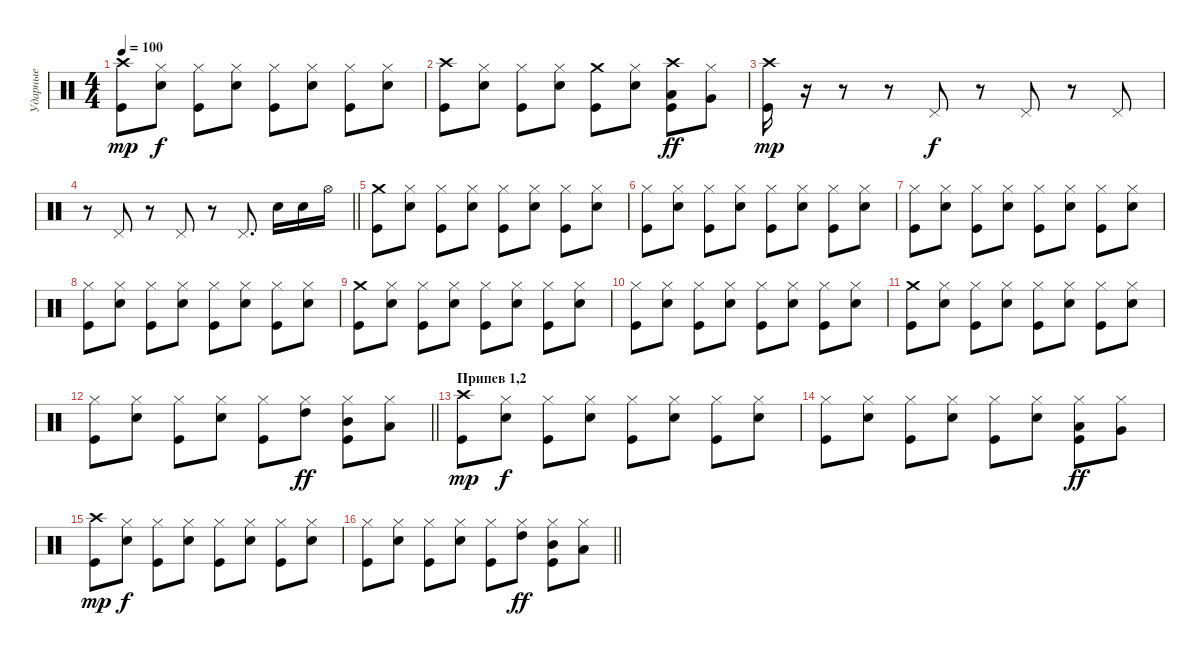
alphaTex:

\track ("Ударные" "Ударные") {instrument percussion}
\staff {score}
\articulation defaults
\ts (4 4)
\tempo 100
\clef neutral
\ks c
("Kick (hit)" "Crash high (hit)").8{dy mp} ("Hi-Hat (closed)" "Snare (hit) 2").8{dy f} ("Hi-Hat (closed)" "Kick (hit)").8 ("Hi-Hat (closed)" "Snare (hit) 2").8 ("Hi-Hat (closed)" "Kick (hit)").8 ("Hi-Hat (closed)" "Snare (hit) 2").8 ("Hi-Hat (closed)" "Kick (hit)").8 ("Hi-Hat (closed)" "Snare (hit) 2").8 |
("Crash high (hit)" "Kick (hit)").8 ("Hi-Hat (closed)" "Snare (hit) 2").8 ("Hi-Hat (closed)" "Kick (hit)").8 ("Hi-Hat (closed)" "Snare (hit) 2").8 ("Crash medium (hit)" "Kick (hit)").8 ("Hi-Hat (closed)" "Snare (hit) 2").8 ("Crash high (hit)" "Kick (hit)" "Low Tom (hit)").8{dy ff} ("Hi-Hat (closed)" "Very Low Tom (hit)").8 |
("Kick (hit)" "Crash high (hit)").16{dy mp} r.16{volume 0} r.8 r.8 "Pedal Hi-Hat (hit)".8{dy f volume 11} r.8 "Pedal Hi-Hat (hit)".8 r.8 "Pedal Hi-Hat (hit)".8 |
\barLineRight lightlight
r.8 "Pedal Hi-Hat (hit)".8 r.8 "Pedal Hi-Hat (hit)".8 r.8 "Pedal Hi-Hat (hit)".8{d} "Snare (hit) 2".16 "Snare (hit) 2".16 "Hi-Hat (open)".16 |
("Crash medium (hit)" "Kick (hit)").8 ("Hi-Hat (closed)" "Snare (hit) 2").8 ("Kick (hit)" "Hi-Hat (closed)").8 ("Hi-Hat (closed)" "Snare (hit) 2").8 ("Hi-Hat (closed)" "Kick (hit)").8 ("Hi-Hat (closed)" "Snare (hit) 2").8 ("Hi-Hat (closed)" "Kick (hit)").8 ("Hi-Hat (closed)" "Snare (hit) 2").8 |
("Hi-Hat (closed)" "Kick (hit)").8 ("Hi-Hat (closed)" "Snare (hit) 2").8 ("Hi-Hat (closed)" "Kick (hit)").8 ("Hi-Hat (closed)" "Snare (hit) 2").8 ("Hi-Hat (closed)" "Kick (hit)").8 ("Hi-Hat (closed)" "Snare (hit) 2").8 ("Hi-Hat (closed)" "Kick (hit)").8 ("Hi-Hat (closed)" "Snare (hit) 2").8 |
("Hi-Hat (closed)" "Kick (hit)").8 ("Hi-Hat (closed)" "Snare (hit) 2").8 ("Hi-Hat (closed)" "Kick (hit)").8 ("Hi-Hat (closed)" "Snare (hit) 2").8 ("Hi-Hat (closed)" "Kick (hit)").8 ("Hi-Hat (closed)" "Snare (hit) 2").8 ("Hi-Hat (closed)" "Kick (hit)").8 ("Hi-Hat (closed)" "Snare (hit) 2").8 |
("Hi-Hat (closed)" "Kick (hit)").8 ("Hi-Hat (closed)" "Snare (hit) 2").8 ("Hi-Hat (closed)" "Kick (hit)").8 ("Hi-Hat (closed)" "Snare (hit) 2").8 ("Hi-Hat (closed)" "Kick (hit)").8 ("Hi-Hat (closed)" "Snare (hit) 2").8 ("Hi-Hat (closed)" "Kick (hit)").8 ("Hi-Hat (closed)" "Snare (hit) 2").8 |
("Crash medium (hit)" "Kick (hit)").8 ("Hi-Hat (closed)" "Snare (hit) 2").8 ("Kick (hit)" "Hi-Hat (closed)").8 ("Hi-Hat (closed)" "Snare (hit) 2").8 ("Hi-Hat (closed)" "Kick (hit)").8 ("Hi-Hat (closed)" "Snare (hit) 2").8 ("Hi-Hat (closed)" "Kick (hit)").8 ("Hi-Hat (closed)" "Snare (hit) 2").8 |
("Hi-Hat (closed)" "Kick (hit)").8 ("Hi-Hat (closed)" "Snare (hit) 2").8 ("Hi-Hat (closed)" "Kick (hit)").8 ("Hi-Hat (closed)" "Snare (hit) 2").8 ("Hi-Hat (closed)" "Kick (hit)").8 ("Hi-Hat (closed)" "Snare (hit) 2").8 ("Hi-Hat (closed)" "Kick (hit)").8 ("Hi-Hat (closed)" "Snare (hit) 2").8 |
("Crash medium (hit)" "Kick (hit)").8 ("Hi-Hat (closed)" "Snare (hit) 2").8 ("Kick (hit)" "Hi-Hat (closed)").8 ("Hi-Hat (closed)" "Snare (hit) 2").8 ("Hi-Hat (closed)" "Kick (hit)").8 ("Hi-Hat (closed)" "Snare (hit) 2").8 ("Hi-Hat (closed)" "Kick (hit)").8 ("Hi-Hat (closed)" "Snare (hit) 2").8 |
\barLineRight lightlight
("Hi-Hat (closed)" "Kick (hit)").8 ("Hi-Hat (closed)" "Snare (hit) 2").8 ("Hi-Hat (closed)" "Kick (hit)").8 ("Hi-Hat (closed)" "Snare (hit) 2").8 ("Hi-Hat (closed)" "Kick (hit)").8 ("Hi-Hat (closed)" "High Tom (hit)").8{dy ff} ("Hi-Hat (closed)" "Kick (hit)" "Mid Tom (hit)").8 ("Hi-Hat (closed)" "Low Tom (hit)").8 |
\section ("" "Припев 1,2")
("Kick (hit)" "Crash high (hit)").8{dy mp} ("Hi-Hat (closed)" "Snare (hit) 2").8{dy f} ("Hi-Hat (closed)" "Kick (hit)").8 ("Hi-Hat (closed)" "Snare (hit) 2").8 ("Hi-Hat (closed)" "Kick (hit)").8 ("Hi-Hat (closed)" "Snare (hit) 2").8 ("Hi-Hat (closed)" "Kick (hit)").8 ("Hi-Hat (closed)" "Snare (hit) 2").8 |
("Hi-Hat (closed)" "Kick (hit)").8 ("Hi-Hat (closed)" "Snare (hit) 2").8 ("Hi-Hat (closed)" "Kick (hit)").8 ("Hi-Hat (closed)" "Snare (hit) 2").8 ("Hi-Hat (closed)" "Kick (hit)").8 ("Hi-Hat (closed)" "Snare (hit) 2").8 ("Hi-Hat (closed)" "Kick (hit)" "Low Tom (hit)").8{dy ff} ("Hi-Hat (closed)" "Very Low Tom (hit)").8 |
("Kick (hit)" "Crash high (hit)").8{dy mp} ("Hi-Hat (closed)" "Snare (hit) 2").8{dy f} ("Hi-Hat (closed)" "Kick (hit)").8 ("Hi-Hat (closed)" "Snare (hit) 2").8 ("Hi-Hat (closed)" "Kick (hit)").8 ("Hi-Hat (closed)" "Snare (hit) 2").8 ("Hi-Hat (closed)" "Kick (hit)").8 ("Hi-Hat (closed)" "Snare (hit) 2").8 |
\barLineRight lightlight
("Hi-Hat (closed)" "Kick (hit)").8 ("Hi-Hat (closed)" "Snare (hit) 2").8 ("Hi-Hat (closed)" "Kick (hit)").8 ("Hi-Hat (closed)" "Snare (hit) 2").8 ("Hi-Hat (closed)" "Kick (hit)").8 ("Hi-Hat (closed)" "High Tom (hit)").8{dy ff} ("Hi-Hat (closed)" "Kick (hit)" "Mid Tom (hit)").8 ("Hi-Hat (closed)" "Low Tom (hit)").8
